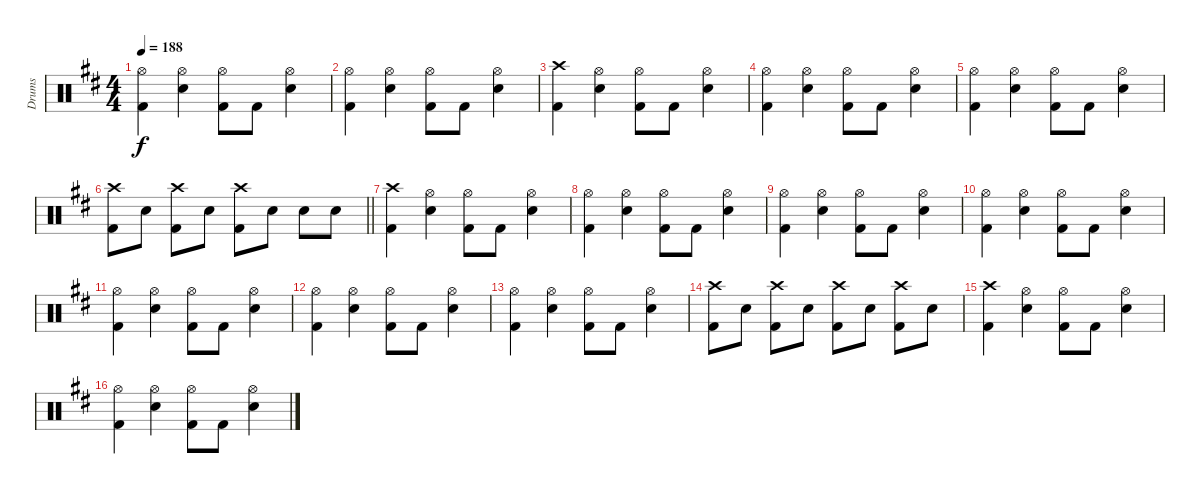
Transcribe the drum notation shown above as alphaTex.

\track ("Drums" "Drums") {instrument percussion}
\staff {score}
\articulation defaults
\ts (4 4)
\tempo 188
\clef neutral
\ks bminor
("Hi-Hat (open)" "Kick (hit) 2").4{dy f} ("Hi-Hat (open)" "Electric Snare (hit)").4 ("Hi-Hat (open)" "Kick (hit) 2").8 "Kick (hit) 2".8 ("Hi-Hat (open)" "Electric Snare (hit)").4 |
("Hi-Hat (open)" "Kick (hit) 2").4 ("Hi-Hat (open)" "Electric Snare (hit)").4 ("Hi-Hat (open)" "Kick (hit) 2").8 "Kick (hit) 2".8 ("Hi-Hat (open)" "Electric Snare (hit)").4 |
("Crash high (hit)" "Kick (hit) 2").4 ("Hi-Hat (open)" "Electric Snare (hit)").4 ("Hi-Hat (open)" "Kick (hit) 2").8 "Kick (hit) 2".8 ("Hi-Hat (open)" "Electric Snare (hit)").4 |
("Hi-Hat (open)" "Kick (hit) 2").4 ("Hi-Hat (open)" "Electric Snare (hit)").4 ("Hi-Hat (open)" "Kick (hit) 2").8 "Kick (hit) 2".8 ("Hi-Hat (open)" "Electric Snare (hit)").4 |
("Hi-Hat (open)" "Kick (hit) 2").4 ("Hi-Hat (open)" "Electric Snare (hit)").4 ("Hi-Hat (open)" "Kick (hit) 2").8 "Kick (hit) 2".8 ("Hi-Hat (open)" "Electric Snare (hit)").4 |
\barLineRight lightlight
("Crash high (hit)" "Kick (hit) 2").8 "Electric Snare (hit)".8 ("Crash high (hit)" "Kick (hit) 2").8 "Electric Snare (hit)".8 ("Crash high (hit)" "Kick (hit) 2").8 "Electric Snare (hit)".8 "Electric Snare (hit)".8 "Electric Snare (hit)".8 |
("Crash high (hit)" "Kick (hit) 2").4 ("Hi-Hat (open)" "Electric Snare (hit)").4 ("Hi-Hat (open)" "Kick (hit) 2").8 "Kick (hit) 2".8 ("Hi-Hat (open)" "Electric Snare (hit)").4 |
("Hi-Hat (open)" "Kick (hit) 2").4 ("Hi-Hat (open)" "Electric Snare (hit)").4 ("Hi-Hat (open)" "Kick (hit) 2").8 "Kick (hit) 2".8 ("Hi-Hat (open)" "Electric Snare (hit)").4 |
("Hi-Hat (open)" "Kick (hit) 2").4 ("Hi-Hat (open)" "Electric Snare (hit)").4 ("Hi-Hat (open)" "Kick (hit) 2").8 "Kick (hit) 2".8 ("Hi-Hat (open)" "Electric Snare (hit)").4 |
("Hi-Hat (open)" "Kick (hit) 2").4 ("Hi-Hat (open)" "Electric Snare (hit)").4 ("Hi-Hat (open)" "Kick (hit) 2").8 "Kick (hit) 2".8 ("Hi-Hat (open)" "Electric Snare (hit)").4 |
("Hi-Hat (open)" "Kick (hit) 2").4 ("Hi-Hat (open)" "Electric Snare (hit)").4 ("Hi-Hat (open)" "Kick (hit) 2").8 "Kick (hit) 2".8 ("Hi-Hat (open)" "Electric Snare (hit)").4 |
("Hi-Hat (open)" "Kick (hit) 2").4 ("Hi-Hat (open)" "Electric Snare (hit)").4 ("Hi-Hat (open)" "Kick (hit) 2").8 "Kick (hit) 2".8 ("Hi-Hat (open)" "Electric Snare (hit)").4 |
("Hi-Hat (open)" "Kick (hit) 2").4 ("Hi-Hat (open)" "Electric Snare (hit)").4 ("Hi-Hat (open)" "Kick (hit) 2").8 "Kick (hit) 2".8 ("Hi-Hat (open)" "Electric Snare (hit)").4 |
("Crash high (hit)" "Kick (hit) 2").8 "Electric Snare (hit)".8 ("Crash high (hit)" "Kick (hit) 2").8 "Electric Snare (hit)".8 ("Crash high (hit)" "Kick (hit) 2").8 "Electric Snare (hit)".8 ("Crash high (hit)" "Kick (hit) 2").8 "Electric Snare (hit)".8 |
("Crash high (hit)" "Kick (hit) 2").4 ("Hi-Hat (open)" "Electric Snare (hit)").4 ("Hi-Hat (open)" "Kick (hit) 2").8 "Kick (hit) 2".8 ("Hi-Hat (open)" "Electric Snare (hit)").4 |
("Hi-Hat (open)" "Kick (hit) 2").4 ("Hi-Hat (open)" "Electric Snare (hit)").4 ("Hi-Hat (open)" "Kick (hit) 2").8 "Kick (hit) 2".8 ("Hi-Hat (open)" "Electric Snare (hit)").4
